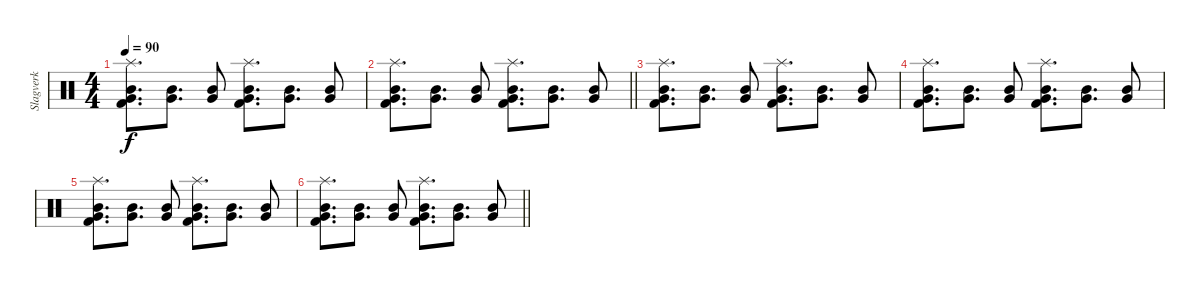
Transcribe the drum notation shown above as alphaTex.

\track ("Slagverk" "Slagverk") {instrument percussion}
\staff {score}
\articulation defaults
\ts (4 4)
\tempo 90
\clef neutral
\ks c
("Splash (hit)" "Very Low Tom (hit)" "Mid Tom (hit)" "Kick (hit) 2").8{d dy f volume 16} ("Very Low Tom (hit)" "Mid Tom (hit)").8{d} ("Very Low Tom (hit)" "Mid Tom (hit)").8 ("Splash (hit)" "Very Low Tom (hit)" "Mid Tom (hit)" "Kick (hit) 2").8{d} ("Very Low Tom (hit)" "Mid Tom (hit)").8{d} ("Very Low Tom (hit)" "Mid Tom (hit)").8 |
\barLineRight lightlight
("Splash (hit)" "Very Low Tom (hit)" "Mid Tom (hit)" "Kick (hit) 2").8{d} ("Very Low Tom (hit)" "Mid Tom (hit)").8{d} ("Very Low Tom (hit)" "Mid Tom (hit)").8 ("Splash (hit)" "Very Low Tom (hit)" "Mid Tom (hit)" "Kick (hit) 2").8{d} ("Very Low Tom (hit)" "Mid Tom (hit)").8{d} ("Very Low Tom (hit)" "Mid Tom (hit)").8 |
("Splash (hit)" "Very Low Tom (hit)" "Mid Tom (hit)" "Kick (hit) 2").8{d} ("Very Low Tom (hit)" "Mid Tom (hit)").8{d} ("Very Low Tom (hit)" "Mid Tom (hit)").8 ("Splash (hit)" "Very Low Tom (hit)" "Mid Tom (hit)" "Kick (hit) 2").8{d} ("Very Low Tom (hit)" "Mid Tom (hit)").8{d} ("Very Low Tom (hit)" "Mid Tom (hit)").8 |
("Splash (hit)" "Very Low Tom (hit)" "Mid Tom (hit)" "Kick (hit) 2").8{d} ("Very Low Tom (hit)" "Mid Tom (hit)").8{d} ("Very Low Tom (hit)" "Mid Tom (hit)").8 ("Splash (hit)" "Very Low Tom (hit)" "Mid Tom (hit)" "Kick (hit) 2").8{d} ("Very Low Tom (hit)" "Mid Tom (hit)").8{d} ("Very Low Tom (hit)" "Mid Tom (hit)").8 |
("Splash (hit)" "Very Low Tom (hit)" "Mid Tom (hit)" "Kick (hit) 2").8{d} ("Very Low Tom (hit)" "Mid Tom (hit)").8{d} ("Very Low Tom (hit)" "Mid Tom (hit)").8 ("Splash (hit)" "Very Low Tom (hit)" "Mid Tom (hit)" "Kick (hit) 2").8{d} ("Very Low Tom (hit)" "Mid Tom (hit)").8{d} ("Very Low Tom (hit)" "Mid Tom (hit)").8 |
\barLineRight lightlight
("Splash (hit)" "Very Low Tom (hit)" "Mid Tom (hit)" "Kick (hit) 2").8{d} ("Very Low Tom (hit)" "Mid Tom (hit)").8{d} ("Very Low Tom (hit)" "Mid Tom (hit)").8 ("Splash (hit)" "Very Low Tom (hit)" "Mid Tom (hit)" "Kick (hit) 2").8{d} ("Very Low Tom (hit)" "Mid Tom (hit)").8{d} ("Very Low Tom (hit)" "Mid Tom (hit)").8
